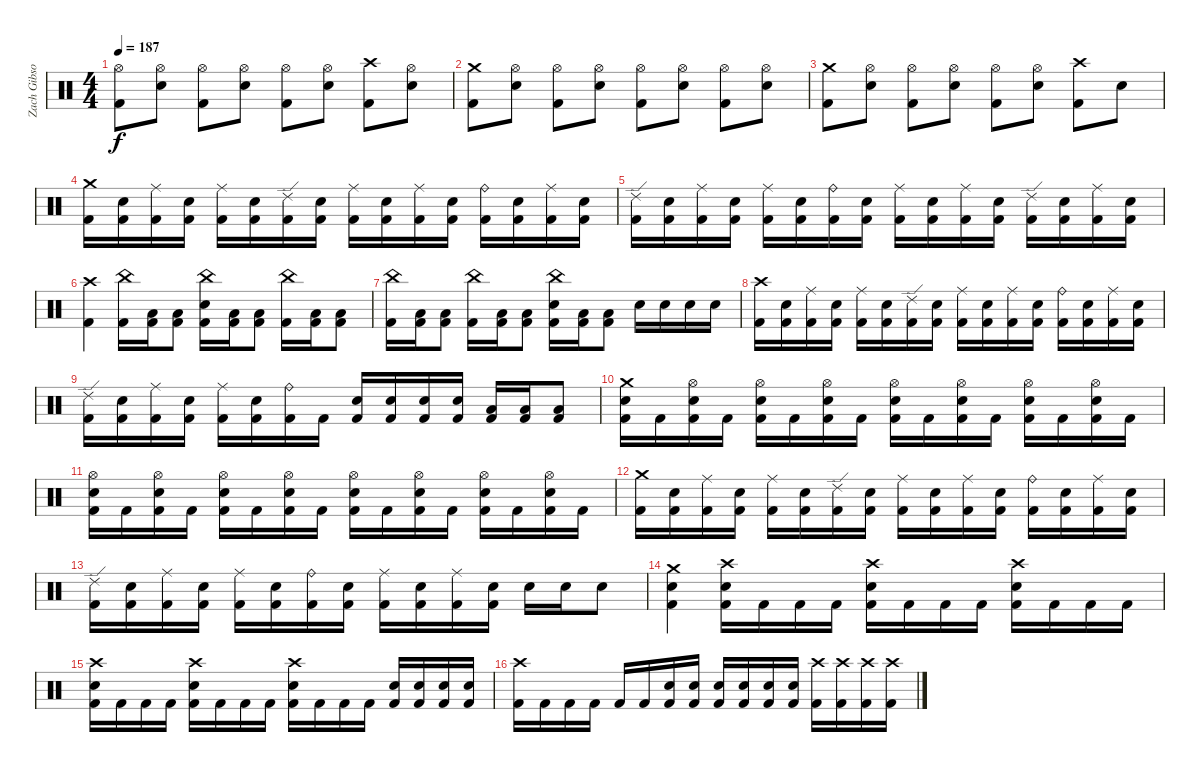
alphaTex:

\track ("Zach Gibson (Ex-Drums)" "Zach Gibso") {instrument percussion}
\staff {score}
\articulation defaults
\ts (4 4)
\tempo 187
\clef neutral
\ks c
("Hi-Hat (open)" "Kick (hit) 2").8{dy f} ("Hi-Hat (open)" "Snare (hit) 2").8 ("Hi-Hat (open)" "Kick (hit) 2").8 ("Hi-Hat (open)" "Snare (hit) 2").8 ("Hi-Hat (open)" "Kick (hit) 2").8 ("Hi-Hat (open)" "Snare (hit) 2").8 ("Crash high (hit)" "Kick (hit) 2").8 ("Hi-Hat (open)" "Snare (hit) 2").8 |
("Crash medium (hit)" "Kick (hit) 2").8 ("Hi-Hat (open)" "Snare (hit) 2").8 ("Hi-Hat (open)" "Kick (hit) 2").8 ("Hi-Hat (open)" "Snare (hit) 2").8 ("Hi-Hat (open)" "Kick (hit) 2").8 ("Hi-Hat (open)" "Snare (hit) 2").8 ("Hi-Hat (open)" "Kick (hit) 2").8 ("Hi-Hat (open)" "Snare (hit) 2").8 |
("Crash medium (hit)" "Kick (hit) 2").8 ("Hi-Hat (open)" "Snare (hit) 2").8 ("Hi-Hat (open)" "Kick (hit) 2").8 ("Hi-Hat (open)" "Snare (hit) 2").8 ("Hi-Hat (open)" "Kick (hit) 2").8 ("Hi-Hat (open)" "Snare (hit) 2").8 ("Crash high (hit)" "Kick (hit) 2").8 "Snare (hit) 2".8 |
("Crash medium (hit)" "Kick (hit) 2").16 ("Snare (hit) 2" "Kick (hit) 2").16 ("Ride (middle)" "Kick (hit) 2").16 ("Snare (hit) 2" "Kick (hit) 2").16 ("Ride (middle)" "Kick (hit) 2").16 ("Snare (hit) 2" "Kick (hit) 2").16 ("Ride (edge) 2" "Kick (hit) 2").16 ("Snare (hit) 2" "Kick (hit) 2").16 ("Ride (middle)" "Kick (hit) 2").16 ("Snare (hit) 2" "Kick (hit) 2").16 ("Ride (middle)" "Kick (hit) 2").16 ("Snare (hit) 2" "Kick (hit) 2").16 ("Ride (bell)" "Kick (hit) 2").16 ("Snare (hit) 2" "Kick (hit) 2").16 ("Ride (middle)" "Kick (hit) 2").16 ("Snare (hit) 2" "Kick (hit) 2").16 |
("Ride (edge) 2" "Kick (hit) 2").16 ("Snare (hit) 2" "Kick (hit) 2").16 ("Ride (middle)" "Kick (hit) 2").16 ("Snare (hit) 2" "Kick (hit) 2").16 ("Ride (middle)" "Kick (hit) 2").16 ("Snare (hit) 2" "Kick (hit) 2").16 ("Ride (bell)" "Kick (hit) 2").16 ("Snare (hit) 2" "Kick (hit) 2").16 ("Ride (middle)" "Kick (hit) 2").16 ("Snare (hit) 2" "Kick (hit) 2").16 ("Ride (middle)" "Kick (hit) 2").16 ("Snare (hit) 2" "Kick (hit) 2").16 ("Ride (edge) 2" "Kick (hit) 2").16 ("Snare (hit) 2" "Kick (hit) 2").16 ("Ride (middle)" "Kick (hit) 2").16 ("Snare (hit) 2" "Kick (hit) 2").16 |
("Crash high (hit)" "Kick (hit) 2").4 ("China (hit)" "Kick (hit) 2").16 ("Low Tom (hit)" "Kick (hit) 2").16 ("Low Floor Tom (hit)" "Kick (hit) 2").8 ("China (hit)" "Snare (hit) 2" "Kick (hit) 2").16 ("Low Tom (hit)" "Kick (hit) 2").16 ("Low Floor Tom (hit)" "Kick (hit) 2").8 ("China (hit)" "Kick (hit) 2").16 ("Low Tom (hit)" "Kick (hit) 2").16 ("Low Floor Tom (hit)" "Kick (hit) 2").8 |
("China (hit)" "Kick (hit) 2").16 ("Low Tom (hit)" "Kick (hit) 2").16 ("Low Floor Tom (hit)" "Kick (hit) 2").8 ("China (hit)" "Kick (hit) 2").16 ("Low Tom (hit)" "Kick (hit) 2").16 ("Low Floor Tom (hit)" "Kick (hit) 2").8 ("China (hit)" "Snare (hit) 2" "Kick (hit) 2").16 ("Low Tom (hit)" "Kick (hit) 2").16 ("Low Floor Tom (hit)" "Kick (hit) 2").8 "Snare (hit) 2".16 "Snare (hit) 2".16 "Snare (hit) 2".16 "Snare (hit) 2".16 |
("Crash high (hit)" "Kick (hit) 2").16 ("Snare (hit) 2" "Kick (hit) 2").16 ("Ride (middle)" "Kick (hit) 2").16 ("Snare (hit) 2" "Kick (hit) 2").16 ("Ride (middle)" "Kick (hit) 2").16 ("Snare (hit) 2" "Kick (hit) 2").16 ("Ride (edge) 2" "Kick (hit) 2").16 ("Snare (hit) 2" "Kick (hit) 2").16 ("Ride (middle)" "Kick (hit) 2").16 ("Snare (hit) 2" "Kick (hit) 2").16 ("Ride (middle)" "Kick (hit) 2").16 ("Snare (hit) 2" "Kick (hit) 2").16 ("Ride (bell)" "Kick (hit) 2").16 ("Snare (hit) 2" "Kick (hit) 2").16 ("Ride (middle)" "Kick (hit) 2").16 ("Snare (hit) 2" "Kick (hit) 2").16 |
("Ride (edge) 2" "Kick (hit) 2").16 ("Snare (hit) 2" "Kick (hit) 2").16 ("Ride (middle)" "Kick (hit) 2").16 ("Snare (hit) 2" "Kick (hit) 2").16 ("Ride (middle)" "Kick (hit) 2").16 ("Snare (hit) 2" "Kick (hit) 2").16 ("Ride (bell)" "Kick (hit) 2").16 "Kick (hit) 2".16 ("Snare (hit) 2" "Kick (hit) 2").16 ("Snare (hit) 2" "Kick (hit) 2").16 ("Snare (hit) 2" "Kick (hit) 2").16 ("Snare (hit) 2" "Kick (hit) 2").16 ("Low Tom (hit)" "Kick (hit) 2").16 ("Low Tom (hit)" "Kick (hit) 2").16 ("Low Floor Tom (hit)" "Kick (hit) 2").8 |
("Crash medium (hit)" "Snare (hit) 2" "Kick (hit) 2").16 "Kick (hit) 2".16 ("Hi-Hat (open)" "Snare (hit) 2" "Kick (hit) 2").16 "Kick (hit) 2".16 ("Hi-Hat (open)" "Snare (hit) 2" "Kick (hit) 2").16 "Kick (hit) 2".16 ("Hi-Hat (open)" "Snare (hit) 2" "Kick (hit) 2").16 "Kick (hit) 2".16 ("Hi-Hat (open)" "Snare (hit) 2" "Kick (hit) 2").16 "Kick (hit) 2".16 ("Hi-Hat (open)" "Snare (hit) 2" "Kick (hit) 2").16 "Kick (hit) 2".16 ("Hi-Hat (open)" "Snare (hit) 2" "Kick (hit) 2").16 "Kick (hit) 2".16 ("Hi-Hat (open)" "Snare (hit) 2" "Kick (hit) 2").16 "Kick (hit) 2".16 |
("Hi-Hat (open)" "Snare (hit) 2" "Kick (hit) 2").16 "Kick (hit) 2".16 ("Hi-Hat (open)" "Snare (hit) 2" "Kick (hit) 2").16 "Kick (hit) 2".16 ("Hi-Hat (open)" "Snare (hit) 2" "Kick (hit) 2").16 "Kick (hit) 2".16 ("Hi-Hat (open)" "Snare (hit) 2" "Kick (hit) 2").16 "Kick (hit) 2".16 ("Hi-Hat (open)" "Snare (hit) 2" "Kick (hit) 2").16 "Kick (hit) 2".16 ("Hi-Hat (open)" "Snare (hit) 2" "Kick (hit) 2").16 "Kick (hit) 2".16 ("Hi-Hat (open)" "Snare (hit) 2" "Kick (hit) 2").16 "Kick (hit) 2".16 ("Hi-Hat (open)" "Snare (hit) 2" "Kick (hit) 2").16 "Kick (hit) 2".16 |
("Crash medium (hit)" "Kick (hit) 2").16 ("Snare (hit) 2" "Kick (hit) 2").16 ("Ride (middle)" "Kick (hit) 2").16 ("Snare (hit) 2" "Kick (hit) 2").16 ("Ride (middle)" "Kick (hit) 2").16 ("Snare (hit) 2" "Kick (hit) 2").16 ("Ride (edge) 2" "Kick (hit) 2").16 ("Snare (hit) 2" "Kick (hit) 2").16 ("Ride (middle)" "Kick (hit) 2").16 ("Snare (hit) 2" "Kick (hit) 2").16 ("Ride (middle)" "Kick (hit) 2").16 ("Snare (hit) 2" "Kick (hit) 2").16 ("Ride (bell)" "Kick (hit) 2").16 ("Snare (hit) 2" "Kick (hit) 2").16 ("Ride (middle)" "Kick (hit) 2").16 ("Snare (hit) 2" "Kick (hit) 2").16 |
("Ride (edge) 2" "Kick (hit) 2").16 ("Snare (hit) 2" "Kick (hit) 2").16 ("Ride (middle)" "Kick (hit) 2").16 ("Snare (hit) 2" "Kick (hit) 2").16 ("Ride (middle)" "Kick (hit) 2").16 ("Snare (hit) 2" "Kick (hit) 2").16 ("Ride (bell)" "Kick (hit) 2").16 ("Snare (hit) 2" "Kick (hit) 2").16 ("Ride (middle)" "Kick (hit) 2").16 ("Snare (hit) 2" "Kick (hit) 2").16 ("Ride (middle)" "Kick (hit) 2").16 ("Snare (hit) 2" "Kick (hit) 2").16 "Snare (hit) 2".16 "Snare (hit) 2".16 "Snare (hit) 2".8 |
("Kick (hit) 2" "Crash medium (hit)" "Snare (hit) 2").4 ("Snare (hit) 2" "Crash high (hit)" "Kick (hit) 2").16 "Kick (hit) 2".16 "Kick (hit) 2".16 "Kick (hit) 2".16 ("Snare (hit) 2" "Crash high (hit)" "Kick (hit) 2").16 "Kick (hit) 2".16 "Kick (hit) 2".16 "Kick (hit) 2".16 ("Snare (hit) 2" "Crash high (hit)" "Kick (hit) 2").16 "Kick (hit) 2".16 "Kick (hit) 2".16 "Kick (hit) 2".16 |
("Snare (hit) 2" "Crash high (hit)" "Kick (hit) 2").16 "Kick (hit) 2".16 "Kick (hit) 2".16 "Kick (hit) 2".16 ("Snare (hit) 2" "Crash high (hit)" "Kick (hit) 2").16 "Kick (hit) 2".16 "Kick (hit) 2".16 "Kick (hit) 2".16 ("Snare (hit) 2" "Crash high (hit)" "Kick (hit) 2").16 "Kick (hit) 2".16 "Kick (hit) 2".16 "Kick (hit) 2".16 ("Snare (hit) 2" "Kick (hit) 2").16 ("Snare (hit) 2" "Kick (hit) 2").16 ("Snare (hit) 2" "Kick (hit) 2").16 ("Snare (hit) 2" "Kick (hit) 2").16 |
("Crash high (hit)" "Kick (hit) 2").16 "Kick (hit) 2".16 "Kick (hit) 2".16 "Kick (hit) 2".16 "Kick (hit) 2".16 "Kick (hit) 2".16 ("Snare (hit) 2" "Kick (hit) 2").16 ("Snare (hit) 2" "Kick (hit) 2").16 ("Snare (hit) 2" "Kick (hit) 2").16 ("Snare (hit) 2" "Kick (hit) 2").16 ("Snare (hit) 2" "Kick (hit) 2").16 ("Snare (hit) 2" "Kick (hit) 2").16 ("Crash high (hit)" "Kick (hit) 2").16 ("Crash high (hit)" "Kick (hit) 2").16 ("Crash high (hit)" "Kick (hit) 2").16 ("Crash high (hit)" "Kick (hit) 2").16
